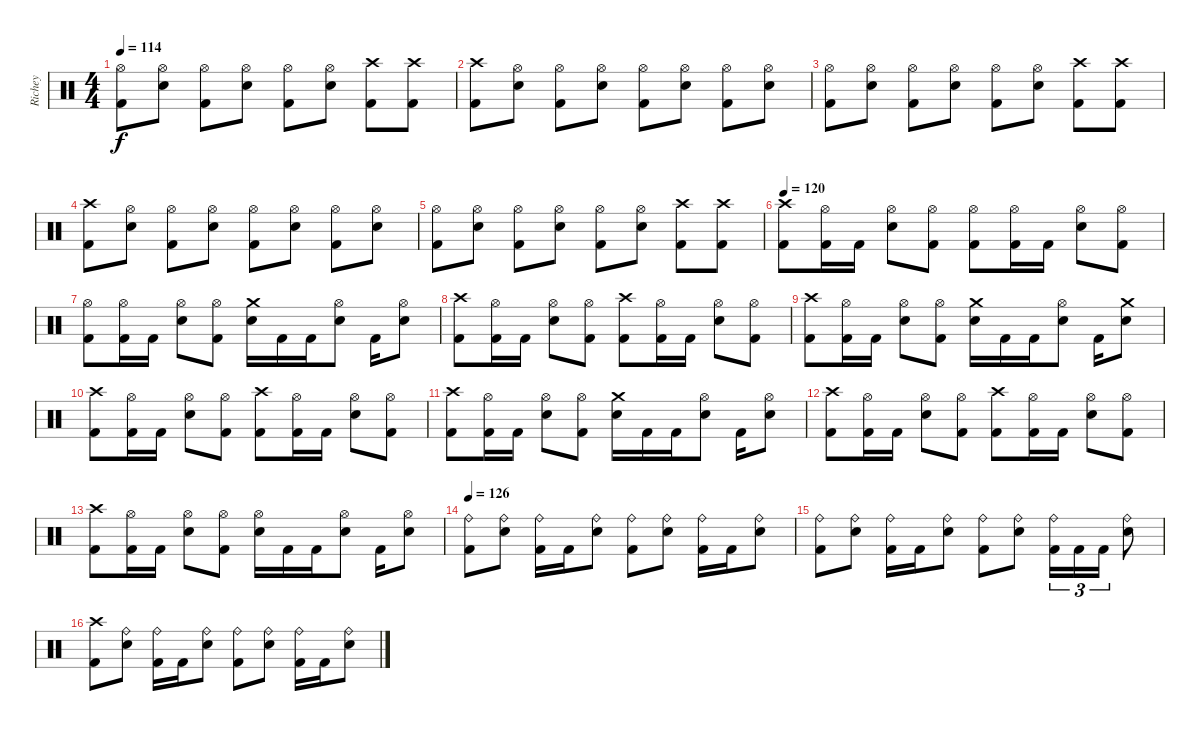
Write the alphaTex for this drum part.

\track ("Richey" "Richey") {instrument percussion}
\staff {score}
\articulation defaults
\ts (4 4)
\tempo 114
\clef neutral
\ks c
("Hi-Hat (open)" "Kick (hit) 2").8{dy f} ("Hi-Hat (open)" "Snare (hit) 2").8 ("Hi-Hat (open)" "Kick (hit) 2").8 ("Hi-Hat (open)" "Snare (hit) 2").8 ("Hi-Hat (open)" "Kick (hit) 2").8 ("Hi-Hat (open)" "Snare (hit) 2").8 ("Crash high (hit)" "Kick (hit) 2").8 ("Crash high (hit)" "Kick (hit) 2").8 |
("Crash high (hit)" "Kick (hit) 2").8 ("Hi-Hat (open)" "Snare (hit) 2").8 ("Hi-Hat (open)" "Kick (hit) 2").8 ("Hi-Hat (open)" "Snare (hit) 2").8 ("Hi-Hat (open)" "Kick (hit) 2").8 ("Hi-Hat (open)" "Snare (hit) 2").8 ("Hi-Hat (open)" "Kick (hit) 2").8 ("Hi-Hat (open)" "Snare (hit) 2").8 |
("Hi-Hat (open)" "Kick (hit) 2").8 ("Hi-Hat (open)" "Snare (hit) 2").8 ("Hi-Hat (open)" "Kick (hit) 2").8 ("Hi-Hat (open)" "Snare (hit) 2").8 ("Hi-Hat (open)" "Kick (hit) 2").8 ("Hi-Hat (open)" "Snare (hit) 2").8 ("Crash high (hit)" "Kick (hit) 2").8 ("Crash high (hit)" "Kick (hit) 2").8 |
("Crash high (hit)" "Kick (hit) 2").8 ("Hi-Hat (open)" "Snare (hit) 2").8 ("Hi-Hat (open)" "Kick (hit) 2").8 ("Hi-Hat (open)" "Snare (hit) 2").8 ("Hi-Hat (open)" "Kick (hit) 2").8 ("Hi-Hat (open)" "Snare (hit) 2").8 ("Hi-Hat (open)" "Kick (hit) 2").8 ("Hi-Hat (open)" "Snare (hit) 2").8 |
("Hi-Hat (open)" "Kick (hit) 2").8 ("Hi-Hat (open)" "Snare (hit) 2").8 ("Hi-Hat (open)" "Kick (hit) 2").8 ("Hi-Hat (open)" "Snare (hit) 2").8 ("Hi-Hat (open)" "Kick (hit) 2").8 ("Hi-Hat (open)" "Snare (hit) 2").8 ("Crash high (hit)" "Kick (hit) 2").8 ("Crash high (hit)" "Kick (hit) 2").8 |
\tempo 120
("Crash high (hit)" "Kick (hit) 2").8 ("Hi-Hat (open)" "Kick (hit) 2").16 "Kick (hit) 2".16 ("Hi-Hat (open)" "Snare (hit) 2").8 ("Hi-Hat (open)" "Kick (hit) 2").8 ("Hi-Hat (open)" "Kick (hit) 2").8 ("Hi-Hat (open)" "Kick (hit) 2").16 "Kick (hit) 2".16 ("Hi-Hat (open)" "Snare (hit) 2").8 ("Hi-Hat (open)" "Kick (hit) 2").8 |
("Hi-Hat (open)" "Kick (hit) 2").8 ("Hi-Hat (open)" "Kick (hit) 2").16 "Kick (hit) 2".16 ("Hi-Hat (open)" "Snare (hit) 2").8 ("Hi-Hat (open)" "Kick (hit) 2").8 ("Crash medium (hit)" "Snare (hit) 2").16 "Kick (hit) 2".16 "Kick (hit) 2".16 ("Hi-Hat (open)" "Snare (hit) 2").8 "Kick (hit) 2".16 ("Hi-Hat (open)" "Snare (hit) 2").8 |
("Crash high (hit)" "Kick (hit) 2").8 ("Hi-Hat (open)" "Kick (hit) 2").16 "Kick (hit) 2".16 ("Hi-Hat (open)" "Snare (hit) 2").8 ("Hi-Hat (open)" "Kick (hit) 2").8 ("Crash high (hit)" "Kick (hit) 2").8 ("Hi-Hat (open)" "Kick (hit) 2").16 "Kick (hit) 2".16 ("Hi-Hat (open)" "Snare (hit) 2").8 ("Hi-Hat (open)" "Kick (hit) 2").8 |
("Crash high (hit)" "Kick (hit) 2").8 ("Hi-Hat (open)" "Kick (hit) 2").16 "Kick (hit) 2".16 ("Hi-Hat (open)" "Snare (hit) 2").8 ("Hi-Hat (open)" "Kick (hit) 2").8 ("Crash medium (hit)" "Snare (hit) 2").16 "Kick (hit) 2".16 "Kick (hit) 2".16 ("Hi-Hat (open)" "Snare (hit) 2").8 "Kick (hit) 2".16 ("Crash medium (hit)" "Snare (hit) 2").8 |
("Crash high (hit)" "Kick (hit) 2").8 ("Hi-Hat (open)" "Kick (hit) 2").16 "Kick (hit) 2".16 ("Hi-Hat (open)" "Snare (hit) 2").8 ("Hi-Hat (open)" "Kick (hit) 2").8 ("Crash high (hit)" "Kick (hit) 2").8 ("Hi-Hat (open)" "Kick (hit) 2").16 "Kick (hit) 2".16 ("Hi-Hat (open)" "Snare (hit) 2").8 ("Hi-Hat (open)" "Kick (hit) 2").8 |
("Crash high (hit)" "Kick (hit) 2").8 ("Hi-Hat (open)" "Kick (hit) 2").16 "Kick (hit) 2".16 ("Hi-Hat (open)" "Snare (hit) 2").8 ("Hi-Hat (open)" "Kick (hit) 2").8 ("Crash medium (hit)" "Snare (hit) 2").16 "Kick (hit) 2".16 "Kick (hit) 2".16 ("Hi-Hat (open)" "Snare (hit) 2").8 "Kick (hit) 2".16 ("Hi-Hat (open)" "Snare (hit) 2").8 |
("Crash high (hit)" "Kick (hit) 2").8 ("Hi-Hat (open)" "Kick (hit) 2").16 "Kick (hit) 2".16 ("Hi-Hat (open)" "Snare (hit) 2").8 ("Hi-Hat (open)" "Kick (hit) 2").8 ("Crash high (hit)" "Kick (hit) 2").8 ("Hi-Hat (open)" "Kick (hit) 2").16 "Kick (hit) 2".16 ("Hi-Hat (open)" "Snare (hit) 2").8 ("Hi-Hat (open)" "Kick (hit) 2").8 |
("Crash high (hit)" "Kick (hit) 2").8 ("Hi-Hat (open)" "Kick (hit) 2").16 "Kick (hit) 2".16 ("Hi-Hat (open)" "Snare (hit) 2").8 ("Hi-Hat (open)" "Kick (hit) 2").8 ("Hi-Hat (open)" "Snare (hit) 2").16 "Kick (hit) 2".16 "Kick (hit) 2".16 ("Hi-Hat (open)" "Snare (hit) 2").8 "Kick (hit) 2".16 ("Hi-Hat (open)" "Snare (hit) 2").8 |
\tempo 126
("Ride (bell)" "Kick (hit) 2").8 ("Ride (bell)" "Snare (hit) 2").8 ("Ride (bell)" "Kick (hit) 2").16 "Kick (hit) 2".16 ("Ride (bell)" "Snare (hit) 2").8 ("Ride (bell)" "Kick (hit) 2").8 ("Ride (bell)" "Snare (hit) 2").8 ("Ride (bell)" "Kick (hit) 2").16 "Kick (hit) 2".16 ("Ride (bell)" "Snare (hit) 2").8 |
("Ride (bell)" "Kick (hit) 2").8 ("Ride (bell)" "Snare (hit) 2").8 ("Ride (bell)" "Kick (hit) 2").16 "Kick (hit) 2".16 ("Ride (bell)" "Snare (hit) 2").8 ("Ride (bell)" "Kick (hit) 2").8 ("Ride (bell)" "Snare (hit) 2").8 ("Ride (bell)" "Kick (hit) 2").16{tu (3 2)} "Kick (hit) 2".16{tu (3 2)} "Kick (hit) 2".16{tu (3 2)} ("Ride (bell)" "Snare (hit) 2").8 |
("Crash high (hit)" "Kick (hit) 2").8 ("Ride (bell)" "Snare (hit) 2").8 ("Ride (bell)" "Kick (hit) 2").16 "Kick (hit) 2".16 ("Ride (bell)" "Snare (hit) 2").8 ("Ride (bell)" "Kick (hit) 2").8 ("Ride (bell)" "Snare (hit) 2").8 ("Ride (bell)" "Kick (hit) 2").16 "Kick (hit) 2".16 ("Ride (bell)" "Snare (hit) 2").8
